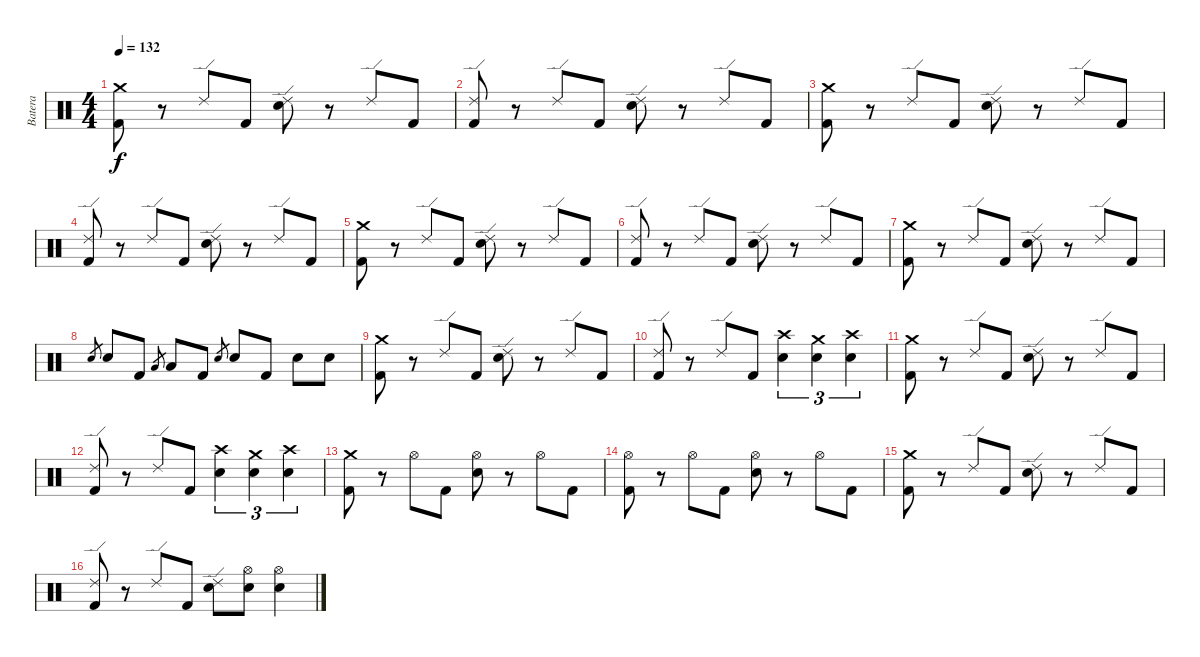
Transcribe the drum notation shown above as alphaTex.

\track ("Batera" "Batera") {instrument percussion}
\staff {score}
\articulation defaults
\ts (4 4)
\tempo 132
\clef neutral
\ks c
("Crash medium (hit)" "Kick (hit) 2").8{dy f} r.8 "Ride (edge) 2".8 "Kick (hit) 2".8 ("Ride (edge) 2" "Electric Snare (hit)").8 r.8 "Ride (edge) 2".8 "Kick (hit) 2".8 |
("Ride (edge) 2" "Kick (hit) 2").8 r.8 "Ride (edge) 2".8 "Kick (hit) 2".8 ("Ride (edge) 2" "Electric Snare (hit)").8 r.8 "Ride (edge) 2".8 "Kick (hit) 2".8 |
("Crash medium (hit)" "Kick (hit) 2").8 r.8 "Ride (edge) 2".8 "Kick (hit) 2".8 ("Ride (edge) 2" "Electric Snare (hit)").8 r.8 "Ride (edge) 2".8 "Kick (hit) 2".8 |
("Ride (edge) 2" "Kick (hit) 2").8 r.8 "Ride (edge) 2".8 "Kick (hit) 2".8 ("Ride (edge) 2" "Electric Snare (hit)").8 r.8 "Ride (edge) 2".8 "Kick (hit) 2".8 |
("Crash medium (hit)" "Kick (hit) 2").8 r.8 "Ride (edge) 2".8 "Kick (hit) 2".8 ("Ride (edge) 2" "Electric Snare (hit)").8 r.8 "Ride (edge) 2".8 "Kick (hit) 2".8 |
("Ride (edge) 2" "Kick (hit) 2").8 r.8 "Ride (edge) 2".8 "Kick (hit) 2".8 ("Ride (edge) 2" "Electric Snare (hit)").8 r.8 "Ride (edge) 2".8 "Kick (hit) 2".8 |
("Crash medium (hit)" "Kick (hit) 2").8 r.8 "Ride (edge) 2".8 "Kick (hit) 2".8 ("Ride (edge) 2" "Electric Snare (hit)").8 r.8 "Ride (edge) 2".8 "Kick (hit) 2".8 |
"Electric Snare (hit)".8{gr} "Electric Snare (hit)".8 "Kick (hit) 2".8 "Low Tom (hit)".8{gr} "Low Tom (hit)".8 "Kick (hit) 2".8 "Electric Snare (hit)".8{gr} "Electric Snare (hit)".8 "Kick (hit) 2".8 "Electric Snare (hit)".8 "Electric Snare (hit)".8 |
("Crash medium (hit)" "Kick (hit) 2").8 r.8 "Ride (edge) 2".8 "Kick (hit) 2".8 ("Ride (edge) 2" "Electric Snare (hit)").8 r.8 "Ride (edge) 2".8 "Kick (hit) 2".8 |
("Ride (edge) 2" "Kick (hit) 2").8 r.8 "Ride (edge) 2".8 "Kick (hit) 2".8 ("Crash high (hit)" "Electric Snare (hit)").4{tu (3 2)} ("Crash medium (hit)" "Electric Snare (hit)").4{tu (3 2)} ("Crash high (hit)" "Electric Snare (hit)").4{tu (3 2)} |
("Crash medium (hit)" "Kick (hit) 2").8 r.8 "Ride (edge) 2".8 "Kick (hit) 2".8 ("Ride (edge) 2" "Electric Snare (hit)").8 r.8 "Ride (edge) 2".8 "Kick (hit) 2".8 |
("Ride (edge) 2" "Kick (hit) 2").8 r.8 "Ride (edge) 2".8 "Kick (hit) 2".8 ("Crash high (hit)" "Electric Snare (hit)").4{tu (3 2)} ("Crash medium (hit)" "Electric Snare (hit)").4{tu (3 2)} ("Crash high (hit)" "Electric Snare (hit)").4{tu (3 2)} |
("Crash medium (hit)" "Kick (hit) 2").8 r.8 "Hi-Hat (open)".8 "Kick (hit) 2".8 ("Hi-Hat (open)" "Electric Snare (hit)").8 r.8 "Hi-Hat (open)".8 "Kick (hit) 2".8 |
("Hi-Hat (open)" "Kick (hit) 2").8 r.8 "Hi-Hat (open)".8 "Kick (hit) 2".8 ("Hi-Hat (open)" "Electric Snare (hit)").8 r.8 "Hi-Hat (open)".8 "Kick (hit) 2".8 |
("Crash medium (hit)" "Kick (hit) 2").8 r.8 "Ride (edge) 2".8 "Kick (hit) 2".8 ("Ride (edge) 2" "Electric Snare (hit)").8 r.8 "Ride (edge) 2".8 "Kick (hit) 2".8 |
("Ride (edge) 2" "Kick (hit) 2").8 r.8 "Ride (edge) 2".8 "Kick (hit) 2".8 ("Ride (edge) 2" "Electric Snare (hit)").8 ("Hi-Hat (open)" "Electric Snare (hit)").8 ("Hi-Hat (open)" "Electric Snare (hit)").4
